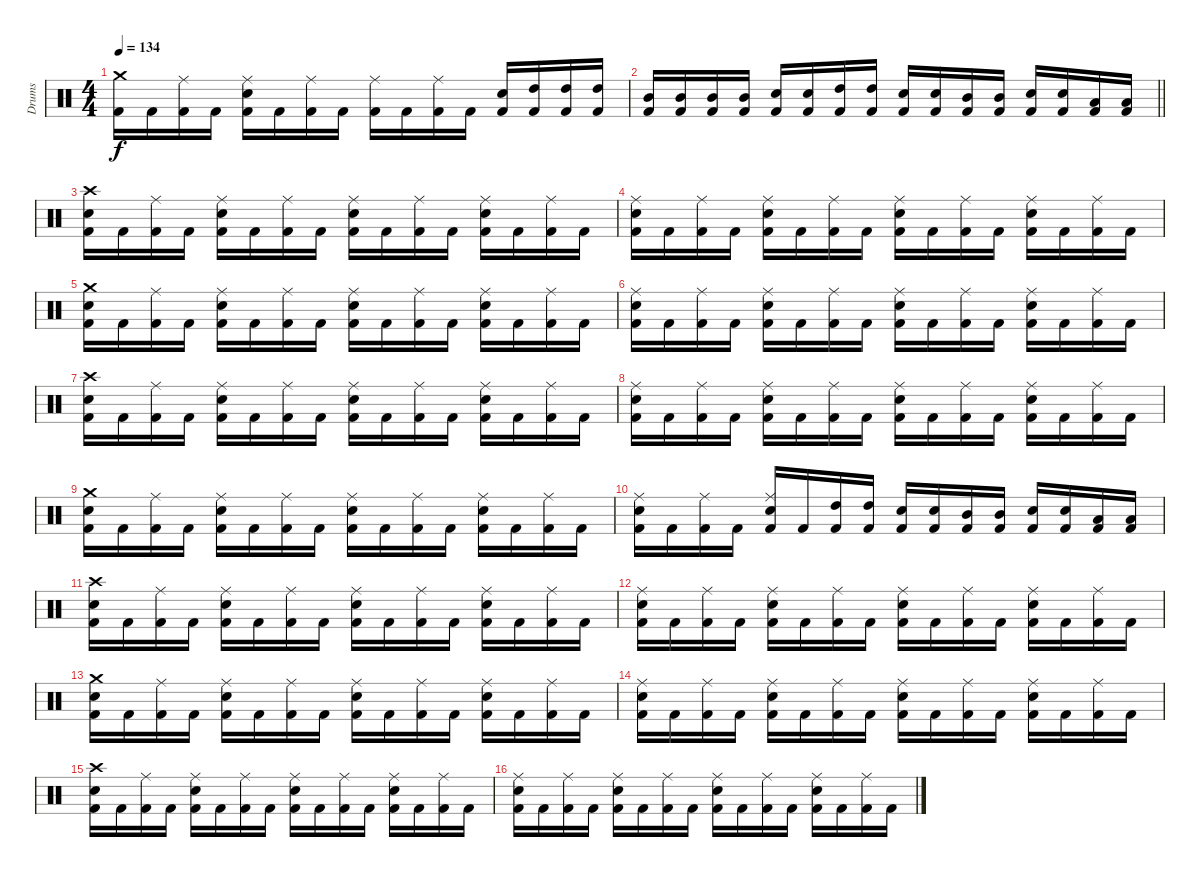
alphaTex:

\track ("Drums" "Drums") {instrument percussion}
\staff {score}
\articulation defaults
\ts (4 4)
\tempo 134
\clef neutral
\ks c
("Crash medium (hit)" "Kick (hit) 2").16{dy f} "Kick (hit) 2".16 ("Ride (middle)" "Kick (hit) 2").16 "Kick (hit) 2".16 ("Ride (middle)" "Electric Snare (hit)" "Kick (hit) 2").16 "Kick (hit) 2".16 ("Ride (middle)" "Kick (hit) 2").16 "Kick (hit) 2".16 ("Ride (middle)" "Kick (hit) 2").16 "Kick (hit) 2".16 ("Ride (middle)" "Kick (hit) 2").16 "Kick (hit) 2".16 ("Electric Snare (hit)" "Kick (hit) 2").16 ("High Tom (hit)" "Kick (hit) 2").16 ("High Tom (hit)" "Kick (hit) 2").16 ("High Tom (hit)" "Kick (hit) 2").16 |
\barLineRight lightlight
("Mid Tom (hit)" "Kick (hit) 2").16 ("Mid Tom (hit)" "Kick (hit) 2").16 ("Mid Tom (hit)" "Kick (hit) 2").16 ("Mid Tom (hit)" "Kick (hit) 2").16 ("Electric Snare (hit)" "Kick (hit) 2").16 ("Electric Snare (hit)" "Kick (hit) 2").16 ("High Tom (hit)" "Kick (hit) 2").16 ("High Tom (hit)" "Kick (hit) 2").16 ("Electric Snare (hit)" "Kick (hit) 2").16 ("Electric Snare (hit)" "Kick (hit) 2").16 ("Mid Tom (hit)" "Kick (hit) 2").16 ("Mid Tom (hit)" "Kick (hit) 2").16 ("Electric Snare (hit)" "Kick (hit) 2").16 ("Electric Snare (hit)" "Kick (hit) 2").16 ("Low Tom (hit)" "Kick (hit) 2").16 ("Low Tom (hit)" "Kick (hit) 2").16 |
\section ("" "")
("Crash high (hit)" "Electric Snare (hit)" "Kick (hit) 2").16 "Kick (hit) 2".16 ("Ride (middle)" "Kick (hit) 2").16 "Kick (hit) 2".16 ("Ride (middle)" "Electric Snare (hit)" "Kick (hit) 2").16 "Kick (hit) 2".16 ("Ride (middle)" "Kick (hit) 2").16 "Kick (hit) 2".16 ("Ride (middle)" "Electric Snare (hit)" "Kick (hit) 2").16 "Kick (hit) 2".16 ("Ride (middle)" "Kick (hit) 2").16 "Kick (hit) 2".16 ("Ride (middle)" "Electric Snare (hit)" "Kick (hit) 2").16 "Kick (hit) 2".16 ("Ride (middle)" "Kick (hit) 2").16 "Kick (hit) 2".16 |
("Ride (middle)" "Electric Snare (hit)" "Kick (hit) 2").16 "Kick (hit) 2".16 ("Ride (middle)" "Kick (hit) 2").16 "Kick (hit) 2".16 ("Ride (middle)" "Electric Snare (hit)" "Kick (hit) 2").16 "Kick (hit) 2".16 ("Ride (middle)" "Kick (hit) 2").16 "Kick (hit) 2".16 ("Ride (middle)" "Electric Snare (hit)" "Kick (hit) 2").16 "Kick (hit) 2".16 ("Ride (middle)" "Kick (hit) 2").16 "Kick (hit) 2".16 ("Ride (middle)" "Electric Snare (hit)" "Kick (hit) 2").16 "Kick (hit) 2".16 ("Ride (middle)" "Kick (hit) 2").16 "Kick (hit) 2".16 |
("Crash medium (hit)" "Electric Snare (hit)" "Kick (hit) 2").16 "Kick (hit) 2".16 ("Ride (middle)" "Kick (hit) 2").16 "Kick (hit) 2".16 ("Ride (middle)" "Electric Snare (hit)" "Kick (hit) 2").16 "Kick (hit) 2".16 ("Ride (middle)" "Kick (hit) 2").16 "Kick (hit) 2".16 ("Ride (middle)" "Electric Snare (hit)" "Kick (hit) 2").16 "Kick (hit) 2".16 ("Ride (middle)" "Kick (hit) 2").16 "Kick (hit) 2".16 ("Ride (middle)" "Electric Snare (hit)" "Kick (hit) 2").16 "Kick (hit) 2".16 ("Ride (middle)" "Kick (hit) 2").16 "Kick (hit) 2".16 |
("Ride (middle)" "Electric Snare (hit)" "Kick (hit) 2").16 "Kick (hit) 2".16 ("Ride (middle)" "Kick (hit) 2").16 "Kick (hit) 2".16 ("Ride (middle)" "Electric Snare (hit)" "Kick (hit) 2").16 "Kick (hit) 2".16 ("Ride (middle)" "Kick (hit) 2").16 "Kick (hit) 2".16 ("Ride (middle)" "Electric Snare (hit)" "Kick (hit) 2").16 "Kick (hit) 2".16 ("Ride (middle)" "Kick (hit) 2").16 "Kick (hit) 2".16 ("Ride (middle)" "Electric Snare (hit)" "Kick (hit) 2").16 "Kick (hit) 2".16 ("Ride (middle)" "Kick (hit) 2").16 "Kick (hit) 2".16 |
("Crash high (hit)" "Electric Snare (hit)" "Kick (hit) 2").16 "Kick (hit) 2".16 ("Ride (middle)" "Kick (hit) 2").16 "Kick (hit) 2".16 ("Ride (middle)" "Electric Snare (hit)" "Kick (hit) 2").16 "Kick (hit) 2".16 ("Ride (middle)" "Kick (hit) 2").16 "Kick (hit) 2".16 ("Ride (middle)" "Electric Snare (hit)" "Kick (hit) 2").16 "Kick (hit) 2".16 ("Ride (middle)" "Kick (hit) 2").16 "Kick (hit) 2".16 ("Ride (middle)" "Electric Snare (hit)" "Kick (hit) 2").16 "Kick (hit) 2".16 ("Ride (middle)" "Kick (hit) 2").16 "Kick (hit) 2".16 |
("Ride (middle)" "Electric Snare (hit)" "Kick (hit) 2").16 "Kick (hit) 2".16 ("Ride (middle)" "Kick (hit) 2").16 "Kick (hit) 2".16 ("Ride (middle)" "Electric Snare (hit)" "Kick (hit) 2").16 "Kick (hit) 2".16 ("Ride (middle)" "Kick (hit) 2").16 "Kick (hit) 2".16 ("Ride (middle)" "Electric Snare (hit)" "Kick (hit) 2").16 "Kick (hit) 2".16 ("Ride (middle)" "Kick (hit) 2").16 "Kick (hit) 2".16 ("Ride (middle)" "Electric Snare (hit)" "Kick (hit) 2").16 "Kick (hit) 2".16 ("Ride (middle)" "Kick (hit) 2").16 "Kick (hit) 2".16 |
("Crash medium (hit)" "Electric Snare (hit)" "Kick (hit) 2").16 "Kick (hit) 2".16 ("Ride (middle)" "Kick (hit) 2").16 "Kick (hit) 2".16 ("Ride (middle)" "Electric Snare (hit)" "Kick (hit) 2").16 "Kick (hit) 2".16 ("Ride (middle)" "Kick (hit) 2").16 "Kick (hit) 2".16 ("Ride (middle)" "Electric Snare (hit)" "Kick (hit) 2").16 "Kick (hit) 2".16 ("Ride (middle)" "Kick (hit) 2").16 "Kick (hit) 2".16 ("Ride (middle)" "Electric Snare (hit)" "Kick (hit) 2").16 "Kick (hit) 2".16 ("Ride (middle)" "Kick (hit) 2").16 "Kick (hit) 2".16 |
("Ride (middle)" "Electric Snare (hit)" "Kick (hit) 2").16 "Kick (hit) 2".16 ("Ride (middle)" "Kick (hit) 2").16 "Kick (hit) 2".16 ("Ride (middle)" "Electric Snare (hit)" "Kick (hit) 2").16 "Kick (hit) 2".16 ("High Tom (hit)" "Kick (hit) 2").16 ("High Tom (hit)" "Kick (hit) 2").16 ("Electric Snare (hit)" "Kick (hit) 2").16 ("Electric Snare (hit)" "Kick (hit) 2").16 ("Mid Tom (hit)" "Kick (hit) 2").16 ("Mid Tom (hit)" "Kick (hit) 2").16 ("Electric Snare (hit)" "Kick (hit) 2").16 ("Electric Snare (hit)" "Kick (hit) 2").16 ("Low Tom (hit)" "Kick (hit) 2").16 ("Low Tom (hit)" "Kick (hit) 2").16 |
("Crash high (hit)" "Electric Snare (hit)" "Kick (hit) 2").16 "Kick (hit) 2".16 ("Ride (middle)" "Kick (hit) 2").16 "Kick (hit) 2".16 ("Ride (middle)" "Electric Snare (hit)" "Kick (hit) 2").16 "Kick (hit) 2".16 ("Ride (middle)" "Kick (hit) 2").16 "Kick (hit) 2".16 ("Ride (middle)" "Electric Snare (hit)" "Kick (hit) 2").16 "Kick (hit) 2".16 ("Ride (middle)" "Kick (hit) 2").16 "Kick (hit) 2".16 ("Ride (middle)" "Electric Snare (hit)" "Kick (hit) 2").16 "Kick (hit) 2".16 ("Ride (middle)" "Kick (hit) 2").16 "Kick (hit) 2".16 |
("Ride (middle)" "Electric Snare (hit)" "Kick (hit) 2").16 "Kick (hit) 2".16 ("Ride (middle)" "Kick (hit) 2").16 "Kick (hit) 2".16 ("Ride (middle)" "Electric Snare (hit)" "Kick (hit) 2").16 "Kick (hit) 2".16 ("Ride (middle)" "Kick (hit) 2").16 "Kick (hit) 2".16 ("Ride (middle)" "Electric Snare (hit)" "Kick (hit) 2").16 "Kick (hit) 2".16 ("Ride (middle)" "Kick (hit) 2").16 "Kick (hit) 2".16 ("Ride (middle)" "Electric Snare (hit)" "Kick (hit) 2").16 "Kick (hit) 2".16 ("Ride (middle)" "Kick (hit) 2").16 "Kick (hit) 2".16 |
("Crash medium (hit)" "Electric Snare (hit)" "Kick (hit) 2").16 "Kick (hit) 2".16 ("Ride (middle)" "Kick (hit) 2").16 "Kick (hit) 2".16 ("Ride (middle)" "Electric Snare (hit)" "Kick (hit) 2").16 "Kick (hit) 2".16 ("Ride (middle)" "Kick (hit) 2").16 "Kick (hit) 2".16 ("Ride (middle)" "Electric Snare (hit)" "Kick (hit) 2").16 "Kick (hit) 2".16 ("Ride (middle)" "Kick (hit) 2").16 "Kick (hit) 2".16 ("Ride (middle)" "Electric Snare (hit)" "Kick (hit) 2").16 "Kick (hit) 2".16 ("Ride (middle)" "Kick (hit) 2").16 "Kick (hit) 2".16 |
("Ride (middle)" "Electric Snare (hit)" "Kick (hit) 2").16 "Kick (hit) 2".16 ("Ride (middle)" "Kick (hit) 2").16 "Kick (hit) 2".16 ("Ride (middle)" "Electric Snare (hit)" "Kick (hit) 2").16 "Kick (hit) 2".16 ("Ride (middle)" "Kick (hit) 2").16 "Kick (hit) 2".16 ("Ride (middle)" "Electric Snare (hit)" "Kick (hit) 2").16 "Kick (hit) 2".16 ("Ride (middle)" "Kick (hit) 2").16 "Kick (hit) 2".16 ("Ride (middle)" "Electric Snare (hit)" "Kick (hit) 2").16 "Kick (hit) 2".16 ("Ride (middle)" "Kick (hit) 2").16 "Kick (hit) 2".16 |
("Crash high (hit)" "Electric Snare (hit)" "Kick (hit) 2").16 "Kick (hit) 2".16 ("Ride (middle)" "Kick (hit) 2").16 "Kick (hit) 2".16 ("Ride (middle)" "Electric Snare (hit)" "Kick (hit) 2").16 "Kick (hit) 2".16 ("Ride (middle)" "Kick (hit) 2").16 "Kick (hit) 2".16 ("Ride (middle)" "Electric Snare (hit)" "Kick (hit) 2").16 "Kick (hit) 2".16 ("Ride (middle)" "Kick (hit) 2").16 "Kick (hit) 2".16 ("Ride (middle)" "Electric Snare (hit)" "Kick (hit) 2").16 "Kick (hit) 2".16 ("Ride (middle)" "Kick (hit) 2").16 "Kick (hit) 2".16 |
("Ride (middle)" "Electric Snare (hit)" "Kick (hit) 2").16 "Kick (hit) 2".16 ("Ride (middle)" "Kick (hit) 2").16 "Kick (hit) 2".16 ("Ride (middle)" "Electric Snare (hit)" "Kick (hit) 2").16 "Kick (hit) 2".16 ("Ride (middle)" "Kick (hit) 2").16 "Kick (hit) 2".16 ("Ride (middle)" "Electric Snare (hit)" "Kick (hit) 2").16 "Kick (hit) 2".16 ("Ride (middle)" "Kick (hit) 2").16 "Kick (hit) 2".16 ("Ride (middle)" "Electric Snare (hit)" "Kick (hit) 2").16 "Kick (hit) 2".16 ("Ride (middle)" "Kick (hit) 2").16 "Kick (hit) 2".16
